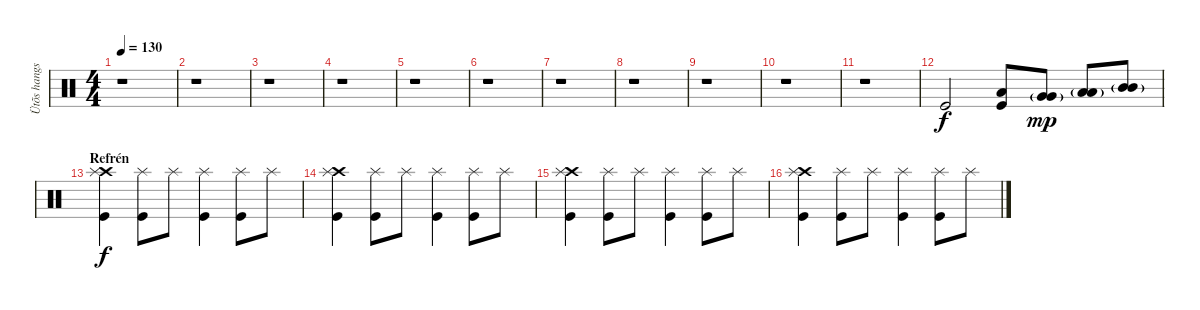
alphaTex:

\track ("Ütõs hangszer" "Ütõs hangs") {instrument percussion}
\staff {score}
\articulation defaults
\ts (4 4)
\tempo 130
\clef neutral
\ks c
r.1{dy f} |
r.1 |
r.1 |
r.1 |
r.1 |
r.1 |
r.1 |
r.1 |
r.1 |
r.1 |
r.1 |
"Kick (hit)".2 ("Low Floor Tom (hit)" "Kick (hit)").8 ("Very Low Tom (hit)" "Very Low Tom (hit)"{g}).8{dy mp} ("Low Tom (hit)" "Low Tom (hit)"{g}).8 ("Mid Tom (hit)" "Mid Tom (hit)"{g}).8 |
\section ("" "Refrén")
("Crash high (hit)" "Splash (hit)" "Kick (hit)").4{dy f} ("Splash (hit)" "Kick (hit)").8 "Splash (hit)".8 ("Splash (hit)" "Kick (hit)").4 ("Splash (hit)" "Kick (hit)").8 "Splash (hit)".8 |
("Crash high (hit)" "Splash (hit)" "Kick (hit)").4 ("Splash (hit)" "Kick (hit)").8 "Splash (hit)".8 ("Splash (hit)" "Kick (hit)").4 ("Splash (hit)" "Kick (hit)").8 "Splash (hit)".8 |
("Crash high (hit)" "Splash (hit)" "Kick (hit)").4 ("Splash (hit)" "Kick (hit)").8 "Splash (hit)".8 ("Splash (hit)" "Kick (hit)").4 ("Splash (hit)" "Kick (hit)").8 "Splash (hit)".8 |
("Crash high (hit)" "Splash (hit)" "Kick (hit)").4 ("Splash (hit)" "Kick (hit)").8 "Splash (hit)".8 ("Splash (hit)" "Kick (hit)").4 ("Splash (hit)" "Kick (hit)").8 "Splash (hit)".8
